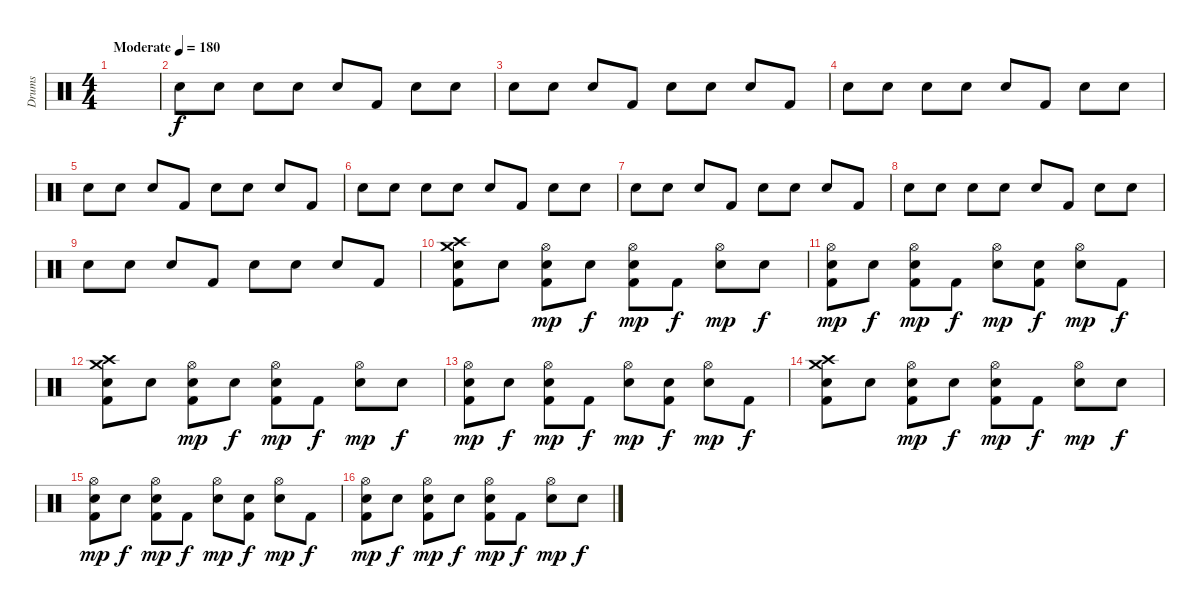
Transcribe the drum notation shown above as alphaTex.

\track ("Drums" "Drums") {instrument percussion}
\staff {score}
\articulation defaults
\ts (4 4)
\tempo (180 "Moderate")
\clef neutral
\ks c
|
"Snare (hit) 2".8 "Snare (hit) 2".8 "Snare (hit) 2".8 "Snare (hit) 2".8 "Snare (hit) 2".8 "Kick (hit) 2".8 "Snare (hit) 2".8 "Snare (hit) 2".8 |
"Snare (hit) 2".8 "Snare (hit) 2".8 "Snare (hit) 2".8 "Kick (hit) 2".8 "Snare (hit) 2".8 "Snare (hit) 2".8 "Snare (hit) 2".8 "Kick (hit) 2".8 |
"Snare (hit) 2".8 "Snare (hit) 2".8 "Snare (hit) 2".8 "Snare (hit) 2".8 "Snare (hit) 2".8 "Kick (hit) 2".8 "Snare (hit) 2".8 "Snare (hit) 2".8 |
"Snare (hit) 2".8 "Snare (hit) 2".8 "Snare (hit) 2".8 "Kick (hit) 2".8 "Snare (hit) 2".8 "Snare (hit) 2".8 "Snare (hit) 2".8 "Kick (hit) 2".8 |
"Snare (hit) 2".8 "Snare (hit) 2".8 "Snare (hit) 2".8 "Snare (hit) 2".8 "Snare (hit) 2".8 "Kick (hit) 2".8 "Snare (hit) 2".8 "Snare (hit) 2".8 |
"Snare (hit) 2".8 "Snare (hit) 2".8 "Snare (hit) 2".8 "Kick (hit) 2".8 "Snare (hit) 2".8 "Snare (hit) 2".8 "Snare (hit) 2".8 "Kick (hit) 2".8 |
"Snare (hit) 2".8 "Snare (hit) 2".8 "Snare (hit) 2".8 "Snare (hit) 2".8 "Snare (hit) 2".8 "Kick (hit) 2".8 "Snare (hit) 2".8 "Snare (hit) 2".8 |
"Snare (hit) 2".8 "Snare (hit) 2".8 "Snare (hit) 2".8 "Kick (hit) 2".8 "Snare (hit) 2".8 "Snare (hit) 2".8 "Snare (hit) 2".8 "Kick (hit) 2".8 |
("Crash medium (hit)" "Crash high (hit)" "Snare (hit) 2" "Kick (hit) 2").8 "Snare (hit) 2".8 ("Hi-Hat (open)" "Snare (hit) 2" "Kick (hit) 2").8{dy mp} "Snare (hit) 2".8{dy f} ("Hi-Hat (open)" "Snare (hit) 2" "Kick (hit) 2").8{dy mp} "Kick (hit) 2".8{dy f} ("Hi-Hat (open)" "Snare (hit) 2").8{dy mp} "Snare (hit) 2".8{dy f} |
("Hi-Hat (open)" "Snare (hit) 2" "Kick (hit) 2").8{dy mp} "Snare (hit) 2".8{dy f} ("Hi-Hat (open)" "Snare (hit) 2" "Kick (hit) 2").8{dy mp} "Kick (hit) 2".8{dy f} ("Hi-Hat (open)" "Snare (hit) 2").8{dy mp} ("Snare (hit) 2" "Kick (hit) 2").8{dy f} ("Hi-Hat (open)" "Snare (hit) 2").8{dy mp} "Kick (hit) 2".8{dy f} |
("Crash medium (hit)" "Crash high (hit)" "Snare (hit) 2" "Kick (hit) 2").8 "Snare (hit) 2".8 ("Hi-Hat (open)" "Snare (hit) 2" "Kick (hit) 2").8{dy mp} "Snare (hit) 2".8{dy f} ("Hi-Hat (open)" "Snare (hit) 2" "Kick (hit) 2").8{dy mp} "Kick (hit) 2".8{dy f} ("Hi-Hat (open)" "Snare (hit) 2").8{dy mp} "Snare (hit) 2".8{dy f} |
("Hi-Hat (open)" "Snare (hit) 2" "Kick (hit) 2").8{dy mp} "Snare (hit) 2".8{dy f} ("Hi-Hat (open)" "Snare (hit) 2" "Kick (hit) 2").8{dy mp} "Kick (hit) 2".8{dy f} ("Hi-Hat (open)" "Snare (hit) 2").8{dy mp} ("Snare (hit) 2" "Kick (hit) 2").8{dy f} ("Hi-Hat (open)" "Snare (hit) 2").8{dy mp} "Kick (hit) 2".8{dy f} |
("Crash medium (hit)" "Crash high (hit)" "Snare (hit) 2" "Kick (hit) 2").8 "Snare (hit) 2".8 ("Hi-Hat (open)" "Snare (hit) 2" "Kick (hit) 2").8{dy mp} "Snare (hit) 2".8{dy f} ("Hi-Hat (open)" "Snare (hit) 2" "Kick (hit) 2").8{dy mp} "Kick (hit) 2".8{dy f} ("Hi-Hat (open)" "Snare (hit) 2").8{dy mp} "Snare (hit) 2".8{dy f} |
("Hi-Hat (open)" "Snare (hit) 2" "Kick (hit) 2").8{dy mp} "Snare (hit) 2".8{dy f} ("Hi-Hat (open)" "Snare (hit) 2" "Kick (hit) 2").8{dy mp} "Kick (hit) 2".8{dy f} ("Hi-Hat (open)" "Snare (hit) 2").8{dy mp} ("Snare (hit) 2" "Kick (hit) 2").8{dy f} ("Hi-Hat (open)" "Snare (hit) 2").8{dy mp} "Kick (hit) 2".8{dy f} |
("Hi-Hat (open)" "Snare (hit) 2" "Kick (hit) 2").8{dy mp} "Snare (hit) 2".8{dy f} ("Hi-Hat (open)" "Snare (hit) 2" "Kick (hit) 2").8{dy mp} "Snare (hit) 2".8{dy f} ("Hi-Hat (open)" "Snare (hit) 2" "Kick (hit) 2").8{dy mp} "Kick (hit) 2".8{dy f} ("Hi-Hat (open)" "Snare (hit) 2").8{dy mp} "Snare (hit) 2".8{dy f}
